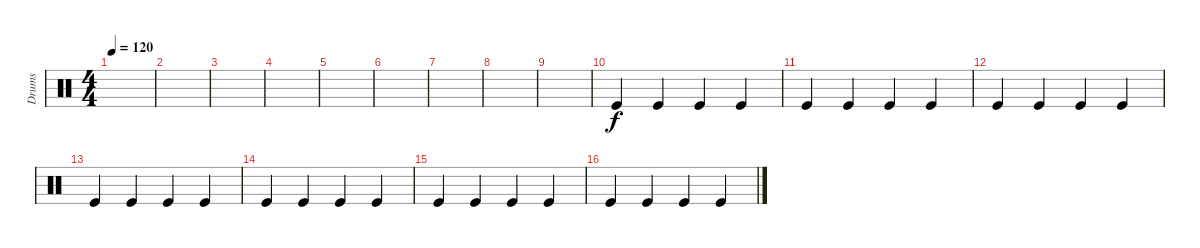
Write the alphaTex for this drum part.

\track ("Drums" "Drums") {instrument percussion}
\staff {score}
\articulation defaults
\ts (4 4)
\tempo 120
\clef neutral
\ks c
|
|
|
|
|
|
|
|
|
"Kick (hit)".4 "Kick (hit)".4 "Kick (hit)".4 "Kick (hit)".4 |
"Kick (hit)".4 "Kick (hit)".4 "Kick (hit)".4 "Kick (hit)".4 |
"Kick (hit)".4 "Kick (hit)".4 "Kick (hit)".4 "Kick (hit)".4 |
"Kick (hit)".4 "Kick (hit)".4 "Kick (hit)".4 "Kick (hit)".4 |
"Kick (hit)".4 "Kick (hit)".4 "Kick (hit)".4 "Kick (hit)".4 |
"Kick (hit)".4 "Kick (hit)".4 "Kick (hit)".4 "Kick (hit)".4 |
"Kick (hit)".4 "Kick (hit)".4 "Kick (hit)".4 "Kick (hit)".4
